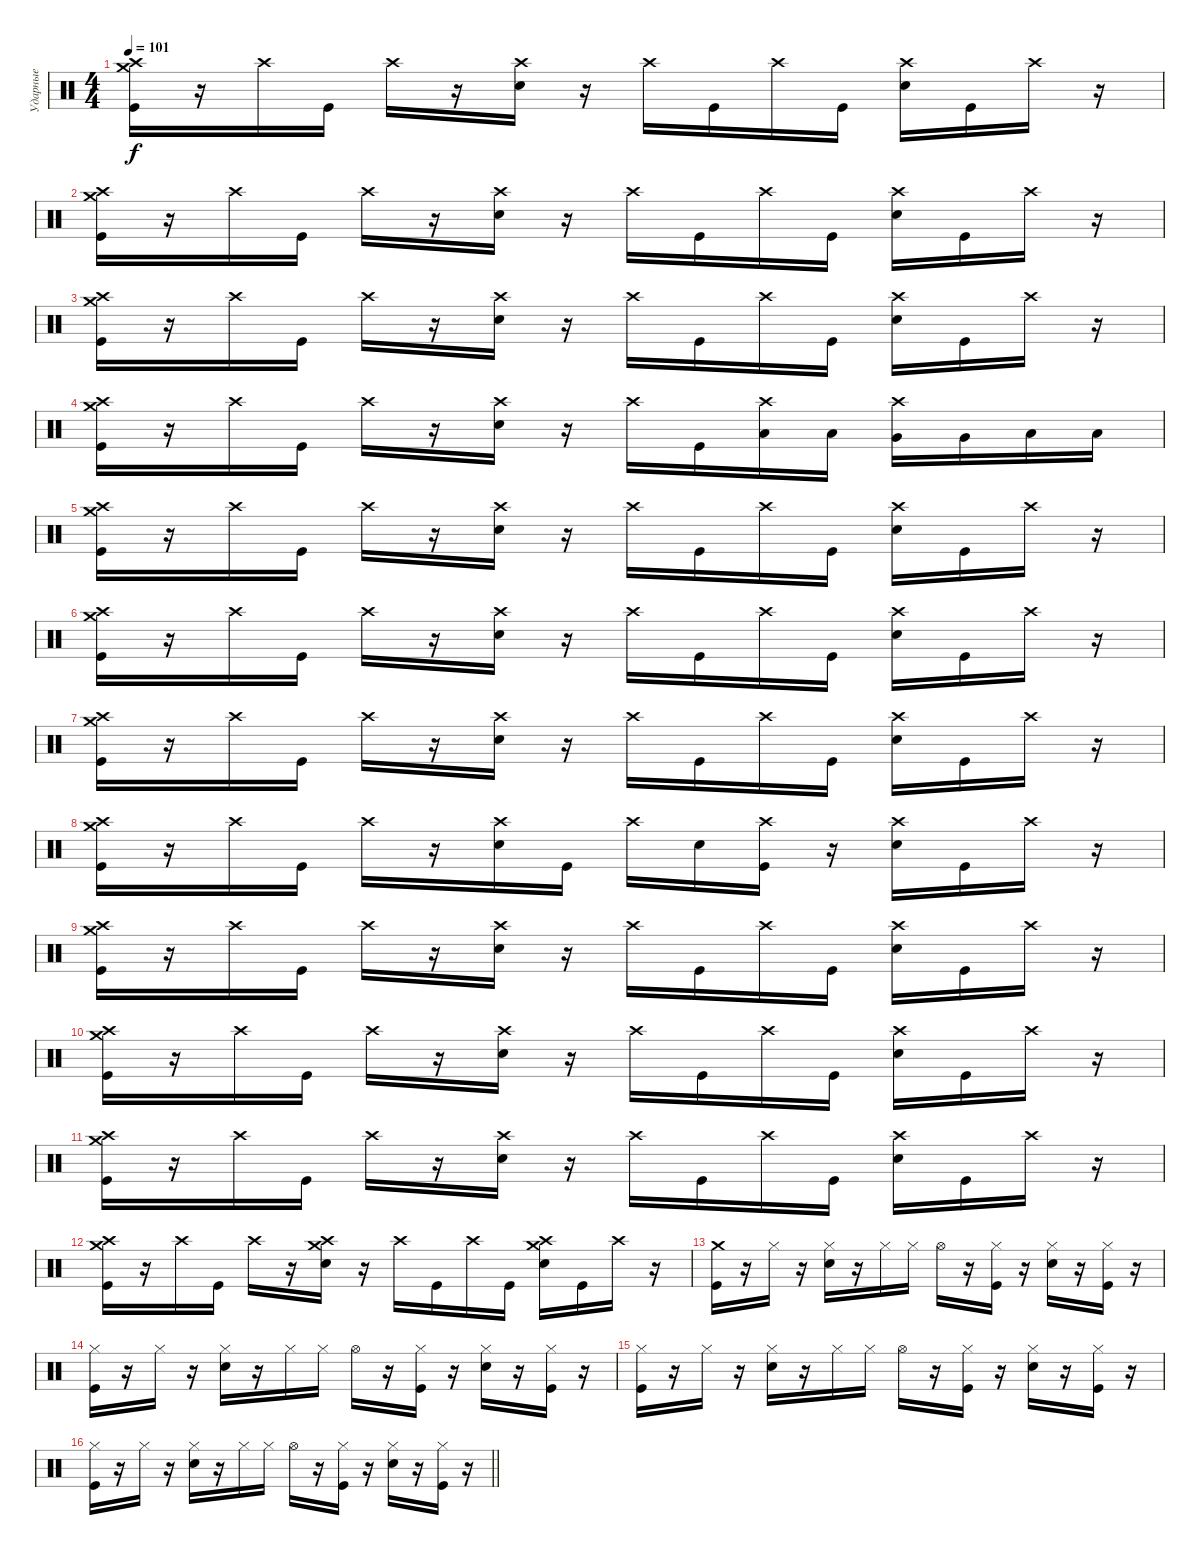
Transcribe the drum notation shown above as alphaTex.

\track ("Ударные" "Ударные") {instrument percussion}
\staff {score}
\articulation defaults
\ts (4 4)
\tempo 101
\clef neutral
\ks c
("Crash high (hit)" "Crash medium (hit)" "Kick (hit)").16{dy f} r.16 "Crash high (hit)".16 "Kick (hit)".16 "Crash high (hit)".16 r.16 ("Crash high (hit)" "Electric Snare (hit)").16 r.16 "Crash high (hit)".16 "Kick (hit)".16 "Crash high (hit)".16 "Kick (hit)".16 ("Crash high (hit)" "Electric Snare (hit)").16 "Kick (hit)".16 "Crash high (hit)".16 r.16 |
("Crash high (hit)" "Crash medium (hit)" "Kick (hit)").16 r.16 "Crash high (hit)".16 "Kick (hit)".16 "Crash high (hit)".16 r.16 ("Crash high (hit)" "Electric Snare (hit)").16 r.16 "Crash high (hit)".16 "Kick (hit)".16 "Crash high (hit)".16 "Kick (hit)".16 ("Crash high (hit)" "Electric Snare (hit)").16 "Kick (hit)".16 "Crash high (hit)".16 r.16 |
("Crash high (hit)" "Crash medium (hit)" "Kick (hit)").16 r.16 "Crash high (hit)".16 "Kick (hit)".16 "Crash high (hit)".16 r.16 ("Crash high (hit)" "Electric Snare (hit)").16 r.16 "Crash high (hit)".16 "Kick (hit)".16 "Crash high (hit)".16 "Kick (hit)".16 ("Crash high (hit)" "Electric Snare (hit)").16 "Kick (hit)".16 "Crash high (hit)".16 r.16 |
("Crash high (hit)" "Crash medium (hit)" "Kick (hit)").16 r.16 "Crash high (hit)".16 "Kick (hit)".16 "Crash high (hit)".16 r.16 ("Crash high (hit)" "Electric Snare (hit)").16 r.16 "Crash high (hit)".16 "Kick (hit)".16 ("Crash high (hit)" "Low Tom (hit)").16 "Low Tom (hit)".16 ("Crash high (hit)" "Very Low Tom (hit)").16 "Very Low Tom (hit)".16 "Low Tom (hit)".16 "Low Tom (hit)".16 |
("Crash high (hit)" "Crash medium (hit)" "Kick (hit)").16 r.16 "Crash high (hit)".16 "Kick (hit)".16 "Crash high (hit)".16 r.16 ("Crash high (hit)" "Electric Snare (hit)").16 r.16 "Crash high (hit)".16 "Kick (hit)".16 "Crash high (hit)".16 "Kick (hit)".16 ("Crash high (hit)" "Electric Snare (hit)").16 "Kick (hit)".16 "Crash high (hit)".16 r.16 |
("Crash high (hit)" "Crash medium (hit)" "Kick (hit)").16 r.16 "Crash high (hit)".16 "Kick (hit)".16 "Crash high (hit)".16 r.16 ("Crash high (hit)" "Electric Snare (hit)").16 r.16 "Crash high (hit)".16 "Kick (hit)".16 "Crash high (hit)".16 "Kick (hit)".16 ("Crash high (hit)" "Electric Snare (hit)").16 "Kick (hit)".16 "Crash high (hit)".16 r.16 |
("Crash high (hit)" "Crash medium (hit)" "Kick (hit)").16 r.16 "Crash high (hit)".16 "Kick (hit)".16 "Crash high (hit)".16 r.16 ("Crash high (hit)" "Electric Snare (hit)").16 r.16 "Crash high (hit)".16 "Kick (hit)".16 "Crash high (hit)".16 "Kick (hit)".16 ("Crash high (hit)" "Electric Snare (hit)").16 "Kick (hit)".16 "Crash high (hit)".16 r.16 |
("Crash high (hit)" "Crash medium (hit)" "Kick (hit)").16 r.16 "Crash high (hit)".16 "Kick (hit)".16 "Crash high (hit)".16 r.16 ("Crash high (hit)" "Electric Snare (hit)").16 "Kick (hit)".16 "Crash high (hit)".16 "Electric Snare (hit)".16 ("Crash high (hit)" "Kick (hit)").16 r.16 ("Crash high (hit)" "Electric Snare (hit)").16 "Kick (hit)".16 "Crash high (hit)".16 r.16 |
("Crash high (hit)" "Crash medium (hit)" "Kick (hit)").16 r.16 "Crash high (hit)".16 "Kick (hit)".16 "Crash high (hit)".16 r.16 ("Crash high (hit)" "Electric Snare (hit)").16 r.16 "Crash high (hit)".16 "Kick (hit)".16 "Crash high (hit)".16 "Kick (hit)".16 ("Crash high (hit)" "Electric Snare (hit)").16 "Kick (hit)".16 "Crash high (hit)".16 r.16 |
("Crash high (hit)" "Crash medium (hit)" "Kick (hit)").16 r.16 "Crash high (hit)".16 "Kick (hit)".16 "Crash high (hit)".16 r.16 ("Crash high (hit)" "Electric Snare (hit)").16 r.16 "Crash high (hit)".16 "Kick (hit)".16 "Crash high (hit)".16 "Kick (hit)".16 ("Crash high (hit)" "Electric Snare (hit)").16 "Kick (hit)".16 "Crash high (hit)".16 r.16 |
("Crash high (hit)" "Crash medium (hit)" "Kick (hit)").16 r.16 "Crash high (hit)".16 "Kick (hit)".16 "Crash high (hit)".16 r.16 ("Crash high (hit)" "Electric Snare (hit)").16 r.16 "Crash high (hit)".16 "Kick (hit)".16 "Crash high (hit)".16 "Kick (hit)".16 ("Crash high (hit)" "Electric Snare (hit)").16 "Kick (hit)".16 "Crash high (hit)".16 r.16 |
("Crash high (hit)" "Crash medium (hit)" "Kick (hit)").16 r.16 "Crash high (hit)".16 "Kick (hit)".16 "Crash high (hit)".16 r.16 ("Crash high (hit)" "Crash medium (hit)" "Electric Snare (hit)").16 r.16 "Crash high (hit)".16 "Kick (hit)".16 "Crash high (hit)".16 "Kick (hit)".16 ("Crash high (hit)" "Crash medium (hit)" "Electric Snare (hit)").16 "Kick (hit)".16 "Crash high (hit)".16 r.16 |
("Crash medium (hit)" "Kick (hit)").16 r.16 "Hi-Hat (closed)".16 r.16 ("Hi-Hat (closed)" "Electric Snare (hit)").16 r.16 "Hi-Hat (closed)".16 "Hi-Hat (closed)".16 "Hi-Hat (open)".16 r.16 ("Hi-Hat (closed)" "Kick (hit)").16 r.16 ("Hi-Hat (closed)" "Electric Snare (hit)").16 r.16 ("Hi-Hat (closed)" "Kick (hit)").16 r.16 |
("Hi-Hat (closed)" "Kick (hit)").16 r.16 "Hi-Hat (closed)".16 r.16 ("Hi-Hat (closed)" "Electric Snare (hit)").16 r.16 "Hi-Hat (closed)".16 "Hi-Hat (closed)".16 "Hi-Hat (open)".16 r.16 ("Hi-Hat (closed)" "Kick (hit)").16 r.16 ("Hi-Hat (closed)" "Electric Snare (hit)").16 r.16 ("Hi-Hat (closed)" "Kick (hit)").16 r.16 |
("Hi-Hat (closed)" "Kick (hit)").16 r.16 "Hi-Hat (closed)".16 r.16 ("Hi-Hat (closed)" "Electric Snare (hit)").16 r.16 "Hi-Hat (closed)".16 "Hi-Hat (closed)".16 "Hi-Hat (open)".16 r.16 ("Hi-Hat (closed)" "Kick (hit)").16 r.16 ("Hi-Hat (closed)" "Electric Snare (hit)").16 r.16 ("Hi-Hat (closed)" "Kick (hit)").16 r.16 |
\barLineRight lightlight
("Hi-Hat (closed)" "Kick (hit)").16 r.16 "Hi-Hat (closed)".16 r.16 ("Hi-Hat (closed)" "Electric Snare (hit)").16 r.16 "Hi-Hat (closed)".16 "Hi-Hat (closed)".16 "Hi-Hat (open)".16 r.16 ("Hi-Hat (closed)" "Kick (hit)").16 r.16 ("Hi-Hat (closed)" "Electric Snare (hit)").16 r.16 ("Hi-Hat (closed)" "Kick (hit)").16 r.16
